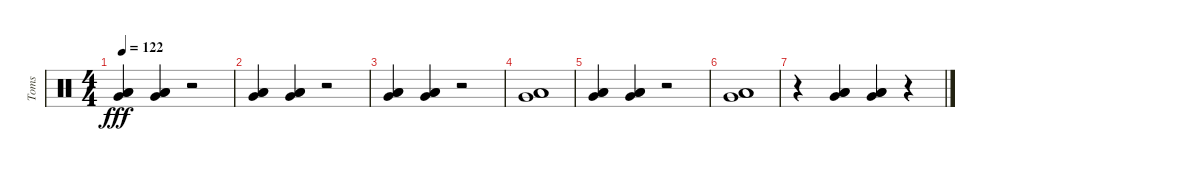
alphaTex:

\track ("Toms" "Toms") {instrument percussion}
\staff {score}
\articulation defaults
\ts (4 4)
\tempo 122
\clef neutral
\ks c
("Low Tom (hit)" "Very Low Tom (hit)" "Low Tom (hit)").4{dy fff} ("Low Tom (hit)" "Very Low Tom (hit)" "Low Tom (hit)").4 r.2 |
("Low Tom (hit)" "Very Low Tom (hit)" "Low Tom (hit)").4 ("Low Tom (hit)" "Very Low Tom (hit)" "Low Tom (hit)").4 r.2 |
("Low Tom (hit)" "Very Low Tom (hit)" "Low Tom (hit)").4 ("Low Tom (hit)" "Very Low Tom (hit)" "Low Tom (hit)").4 r.2 |
("Low Tom (hit)" "Very Low Tom (hit)" "Low Tom (hit)").1 |
("Low Tom (hit)" "Very Low Tom (hit)" "Low Tom (hit)").4 ("Low Tom (hit)" "Very Low Tom (hit)" "Low Tom (hit)").4 r.2 |
("Low Tom (hit)" "Very Low Tom (hit)" "Low Tom (hit)").1 |
r.4 ("Low Tom (hit)" "Very Low Tom (hit)" "Low Tom (hit)").4 ("Low Tom (hit)" "Very Low Tom (hit)" "Low Tom (hit)").4 r.4
